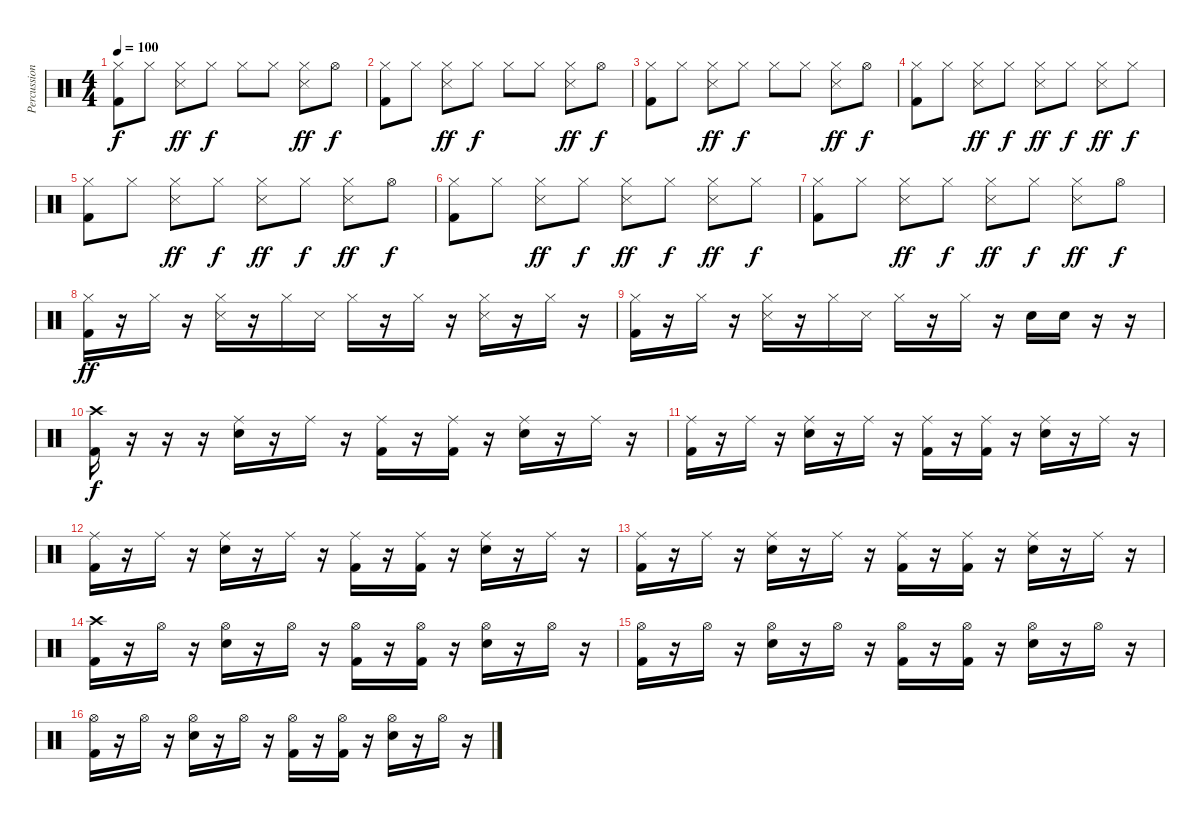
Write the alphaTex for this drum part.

\track ("Percussion" "Percussion") {instrument percussion}
\staff {score}
\articulation defaults
\ts (4 4)
\tempo 100
\clef neutral
\ks c
("Hi-Hat (closed)" "Kick (hit) 2").8{dy f} "Hi-Hat (closed)".8 ("Hi-Hat (closed)" "Snare (side stick) 3").8{dy ff} "Hi-Hat (closed)".8{dy f} "Hi-Hat (closed)".8 "Hi-Hat (closed)".8 ("Hi-Hat (closed)" "Snare (side stick) 3").8{dy ff} "Hi-Hat (open)".8{dy f} |
("Hi-Hat (closed)" "Kick (hit) 2").8 "Hi-Hat (closed)".8 ("Hi-Hat (closed)" "Snare (side stick) 3").8{dy ff} "Hi-Hat (closed)".8{dy f} "Hi-Hat (closed)".8 "Hi-Hat (closed)".8 ("Hi-Hat (closed)" "Snare (side stick) 3").8{dy ff} "Hi-Hat (open)".8{dy f} |
("Hi-Hat (closed)" "Kick (hit) 2").8 "Hi-Hat (closed)".8 ("Hi-Hat (closed)" "Snare (side stick) 3").8{dy ff} "Hi-Hat (closed)".8{dy f} "Hi-Hat (closed)".8 "Hi-Hat (closed)".8 ("Hi-Hat (closed)" "Snare (side stick) 3").8{dy ff} "Hi-Hat (open)".8{dy f} |
("Hi-Hat (closed)" "Kick (hit) 2").8 "Hi-Hat (closed)".8 ("Hi-Hat (closed)" "Snare (side stick) 3").8{dy ff} "Hi-Hat (closed)".8{dy f} ("Hi-Hat (closed)" "Snare (side stick) 3").8{dy ff} "Hi-Hat (closed)".8{dy f} ("Hi-Hat (closed)" "Snare (side stick) 3").8{dy ff} "Hi-Hat (closed)".8{dy f} |
("Hi-Hat (closed)" "Kick (hit) 2").8 "Hi-Hat (closed)".8 ("Hi-Hat (closed)" "Snare (side stick) 3").8{dy ff} "Hi-Hat (closed)".8{dy f} ("Hi-Hat (closed)" "Snare (side stick) 3").8{dy ff} "Hi-Hat (closed)".8{dy f} ("Hi-Hat (closed)" "Snare (side stick) 3").8{dy ff} "Hi-Hat (open)".8{dy f} |
("Hi-Hat (closed)" "Kick (hit) 2").8 "Hi-Hat (closed)".8 ("Hi-Hat (closed)" "Snare (side stick) 3").8{dy ff} "Hi-Hat (closed)".8{dy f} ("Hi-Hat (closed)" "Snare (side stick) 3").8{dy ff} "Hi-Hat (closed)".8{dy f} ("Hi-Hat (closed)" "Snare (side stick) 3").8{dy ff} "Hi-Hat (closed)".8{dy f} |
("Hi-Hat (closed)" "Kick (hit) 2").8 "Hi-Hat (closed)".8 ("Hi-Hat (closed)" "Snare (side stick) 3").8{dy ff} "Hi-Hat (closed)".8{dy f} ("Hi-Hat (closed)" "Snare (side stick) 3").8{dy ff} "Hi-Hat (closed)".8{dy f} ("Hi-Hat (closed)" "Snare (side stick) 3").8{dy ff} "Hi-Hat (open)".8{dy f} |
("Hi-Hat (closed)" "Kick (hit) 2").16{dy ff} r.16 "Hi-Hat (closed)".16 r.16 ("Hi-Hat (closed)" "Snare (side stick) 3").16 r.16 "Hi-Hat (closed)".16 "Snare (side stick) 3".16 "Hi-Hat (closed)".16 r.16 "Hi-Hat (closed)".16 r.16 ("Hi-Hat (closed)" "Snare (side stick) 3").16 r.16 "Hi-Hat (closed)".16 r.16 |
("Hi-Hat (closed)" "Kick (hit) 2").16 r.16 "Hi-Hat (closed)".16 r.16 ("Hi-Hat (closed)" "Snare (side stick) 3").16 r.16 "Hi-Hat (closed)".16 "Snare (side stick) 3".16 "Hi-Hat (closed)".16 r.16 "Hi-Hat (closed)".16 r.16 "Electric Snare (hit)".16 "Electric Snare (hit)".16 r.16 r.16 |
("Kick (hit) 2" "Crash high (hit)").16{dy f} r.16 r.16 r.16 ("Ride (middle)" "Electric Snare (hit)").16 r.16 "Ride (middle)".16 r.16 ("Ride (middle)" "Kick (hit) 2").16 r.16 ("Ride (middle)" "Kick (hit) 2").16 r.16 ("Ride (middle)" "Electric Snare (hit)").16 r.16 "Ride (middle)".16 r.16 |
("Ride (middle)" "Kick (hit) 2").16 r.16 "Ride (middle)".16 r.16 ("Ride (middle)" "Electric Snare (hit)").16 r.16 "Ride (middle)".16 r.16 ("Ride (middle)" "Kick (hit) 2").16 r.16 ("Ride (middle)" "Kick (hit) 2").16 r.16 ("Ride (middle)" "Electric Snare (hit)").16 r.16 "Ride (middle)".16 r.16 |
("Ride (middle)" "Kick (hit) 2").16 r.16 "Ride (middle)".16 r.16 ("Ride (middle)" "Electric Snare (hit)").16 r.16 "Ride (middle)".16 r.16 ("Ride (middle)" "Kick (hit) 2").16 r.16 ("Ride (middle)" "Kick (hit) 2").16 r.16 ("Ride (middle)" "Electric Snare (hit)").16 r.16 "Ride (middle)".16 r.16 |
("Ride (middle)" "Kick (hit) 2").16 r.16 "Ride (middle)".16 r.16 ("Ride (middle)" "Electric Snare (hit)").16 r.16 "Ride (middle)".16 r.16 ("Ride (middle)" "Kick (hit) 2").16 r.16 ("Ride (middle)" "Kick (hit) 2").16 r.16 ("Ride (middle)" "Electric Snare (hit)").16 r.16 "Ride (middle)".16 r.16 |
("Kick (hit) 2" "Crash high (hit)").16 r.16 "Hi-Hat (open)".16 r.16 ("Hi-Hat (open)" "Electric Snare (hit)").16 r.16 "Hi-Hat (open)".16 r.16 ("Hi-Hat (open)" "Kick (hit) 2").16 r.16 ("Hi-Hat (open)" "Kick (hit) 2").16 r.16 ("Hi-Hat (open)" "Electric Snare (hit)").16 r.16 "Hi-Hat (open)".16 r.16 |
("Hi-Hat (open)" "Kick (hit) 2").16 r.16 "Hi-Hat (open)".16 r.16 ("Hi-Hat (open)" "Electric Snare (hit)").16 r.16 "Hi-Hat (open)".16 r.16 ("Hi-Hat (open)" "Kick (hit) 2").16 r.16 ("Hi-Hat (open)" "Kick (hit) 2").16 r.16 ("Hi-Hat (open)" "Electric Snare (hit)").16 r.16 "Hi-Hat (open)".16 r.16 |
("Hi-Hat (open)" "Kick (hit) 2").16 r.16 "Hi-Hat (open)".16 r.16 ("Hi-Hat (open)" "Electric Snare (hit)").16 r.16 "Hi-Hat (open)".16 r.16 ("Hi-Hat (open)" "Kick (hit) 2").16 r.16 ("Hi-Hat (open)" "Kick (hit) 2").16 r.16 ("Hi-Hat (open)" "Electric Snare (hit)").16 r.16 "Hi-Hat (open)".16 r.16
